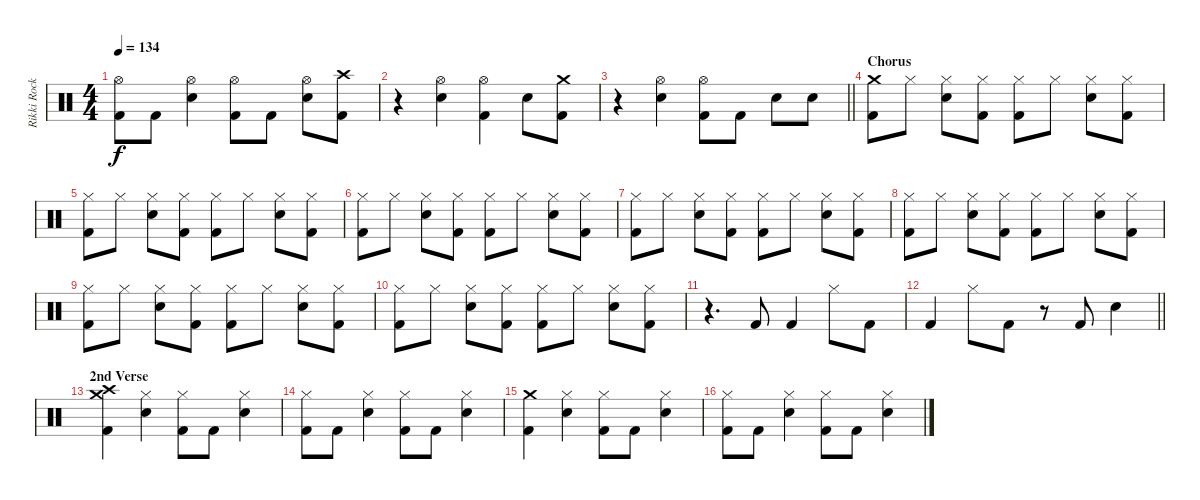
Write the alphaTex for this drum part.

\track ("Rikki Rocket" "Rikki Rock") {instrument percussion}
\staff {score}
\articulation defaults
\ts (4 4)
\tempo 134
\clef neutral
\ks c
("Hi-Hat (open)" "Kick (hit) 2").8{dy f} "Kick (hit) 2".8 ("Hi-Hat (open)" "Snare (hit) 2").4 ("Hi-Hat (open)" "Kick (hit) 2").8 "Kick (hit) 2".8 ("Hi-Hat (open)" "Snare (hit) 2").8 ("Crash high (hit)" "Kick (hit) 2").8 |
r.4 ("Hi-Hat (open)" "Snare (hit) 2").4 ("Hi-Hat (open)" "Kick (hit) 2").4 "Snare (hit) 2".8 ("Crash medium (hit)" "Kick (hit) 2").8 |
\barLineRight lightlight
r.4 ("Hi-Hat (open)" "Snare (hit) 2").4 ("Hi-Hat (open)" "Kick (hit) 2").8 "Kick (hit) 2".8 "Snare (hit) 2".8 "Snare (hit) 2".8 |
\section ("" "Chorus")
("Crash medium (hit)" "Kick (hit) 2").8 "Hi-Hat (closed)".8 ("Hi-Hat (closed)" "Snare (hit) 2").8 ("Hi-Hat (closed)" "Kick (hit) 2").8 ("Hi-Hat (closed)" "Kick (hit) 2").8 "Hi-Hat (closed)".8 ("Hi-Hat (closed)" "Snare (hit) 2").8 ("Hi-Hat (closed)" "Kick (hit) 2").8 |
("Hi-Hat (closed)" "Kick (hit) 2").8 "Hi-Hat (closed)".8 ("Hi-Hat (closed)" "Snare (hit) 2").8 ("Hi-Hat (closed)" "Kick (hit) 2").8 ("Hi-Hat (closed)" "Kick (hit) 2").8 "Hi-Hat (closed)".8 ("Hi-Hat (closed)" "Snare (hit) 2").8 ("Hi-Hat (closed)" "Kick (hit) 2").8 |
("Hi-Hat (closed)" "Kick (hit) 2").8 "Hi-Hat (closed)".8 ("Hi-Hat (closed)" "Snare (hit) 2").8 ("Hi-Hat (closed)" "Kick (hit) 2").8 ("Hi-Hat (closed)" "Kick (hit) 2").8 "Hi-Hat (closed)".8 ("Hi-Hat (closed)" "Snare (hit) 2").8 ("Hi-Hat (closed)" "Kick (hit) 2").8 |
("Hi-Hat (closed)" "Kick (hit) 2").8 "Hi-Hat (closed)".8 ("Hi-Hat (closed)" "Snare (hit) 2").8 ("Hi-Hat (closed)" "Kick (hit) 2").8 ("Hi-Hat (closed)" "Kick (hit) 2").8 "Hi-Hat (closed)".8 ("Hi-Hat (closed)" "Snare (hit) 2").8 ("Hi-Hat (closed)" "Kick (hit) 2").8 |
("Hi-Hat (closed)" "Kick (hit) 2").8 "Hi-Hat (closed)".8 ("Hi-Hat (closed)" "Snare (hit) 2").8 ("Hi-Hat (closed)" "Kick (hit) 2").8 ("Hi-Hat (closed)" "Kick (hit) 2").8 "Hi-Hat (closed)".8 ("Hi-Hat (closed)" "Snare (hit) 2").8 ("Hi-Hat (closed)" "Kick (hit) 2").8 |
("Hi-Hat (closed)" "Kick (hit) 2").8 "Hi-Hat (closed)".8 ("Hi-Hat (closed)" "Snare (hit) 2").8 ("Hi-Hat (closed)" "Kick (hit) 2").8 ("Hi-Hat (closed)" "Kick (hit) 2").8 "Hi-Hat (closed)".8 ("Hi-Hat (closed)" "Snare (hit) 2").8 ("Hi-Hat (closed)" "Kick (hit) 2").8 |
("Hi-Hat (closed)" "Kick (hit) 2").8 "Hi-Hat (closed)".8 ("Hi-Hat (closed)" "Snare (hit) 2").8 ("Hi-Hat (closed)" "Kick (hit) 2").8 ("Hi-Hat (closed)" "Kick (hit) 2").8 "Hi-Hat (closed)".8 ("Hi-Hat (closed)" "Snare (hit) 2").8 ("Hi-Hat (closed)" "Kick (hit) 2").8 |
r.4{d} "Kick (hit) 2".8 "Kick (hit) 2".4 "Hi-Hat (closed)".8 "Kick (hit) 2".8 |
\barLineRight lightlight "Kick (hit) 2".4 "Hi-Hat (closed)".8 "Kick (hit) 2".8
r.8 "Kick (hit) 2".8 "Snare (hit) 2".4 |
\section ("" "2nd Verse")
("Crash medium (hit)" "Crash high (hit)" "Kick (hit) 2").4 ("Hi-Hat (closed)" "Snare (hit) 2").4 ("Hi-Hat (closed)" "Kick (hit) 2").8 "Kick (hit) 2".8 ("Hi-Hat (closed)" "Snare (hit) 2").4 |
("Hi-Hat (closed)" "Kick (hit) 2").8 "Kick (hit) 2".8 ("Hi-Hat (closed)" "Snare (hit) 2").4 ("Hi-Hat (closed)" "Kick (hit) 2").8 "Kick (hit) 2".8 ("Hi-Hat (closed)" "Snare (hit) 2").4 |
("Crash medium (hit)" "Kick (hit) 2").4 ("Hi-Hat (closed)" "Snare (hit) 2").4 ("Hi-Hat (closed)" "Kick (hit) 2").8 "Kick (hit) 2".8 ("Hi-Hat (closed)" "Snare (hit) 2").4 |
("Hi-Hat (closed)" "Kick (hit) 2").8 "Kick (hit) 2".8 ("Hi-Hat (closed)" "Snare (hit) 2").4 ("Hi-Hat (closed)" "Kick (hit) 2").8 "Kick (hit) 2".8 ("Hi-Hat (closed)" "Snare (hit) 2").4
